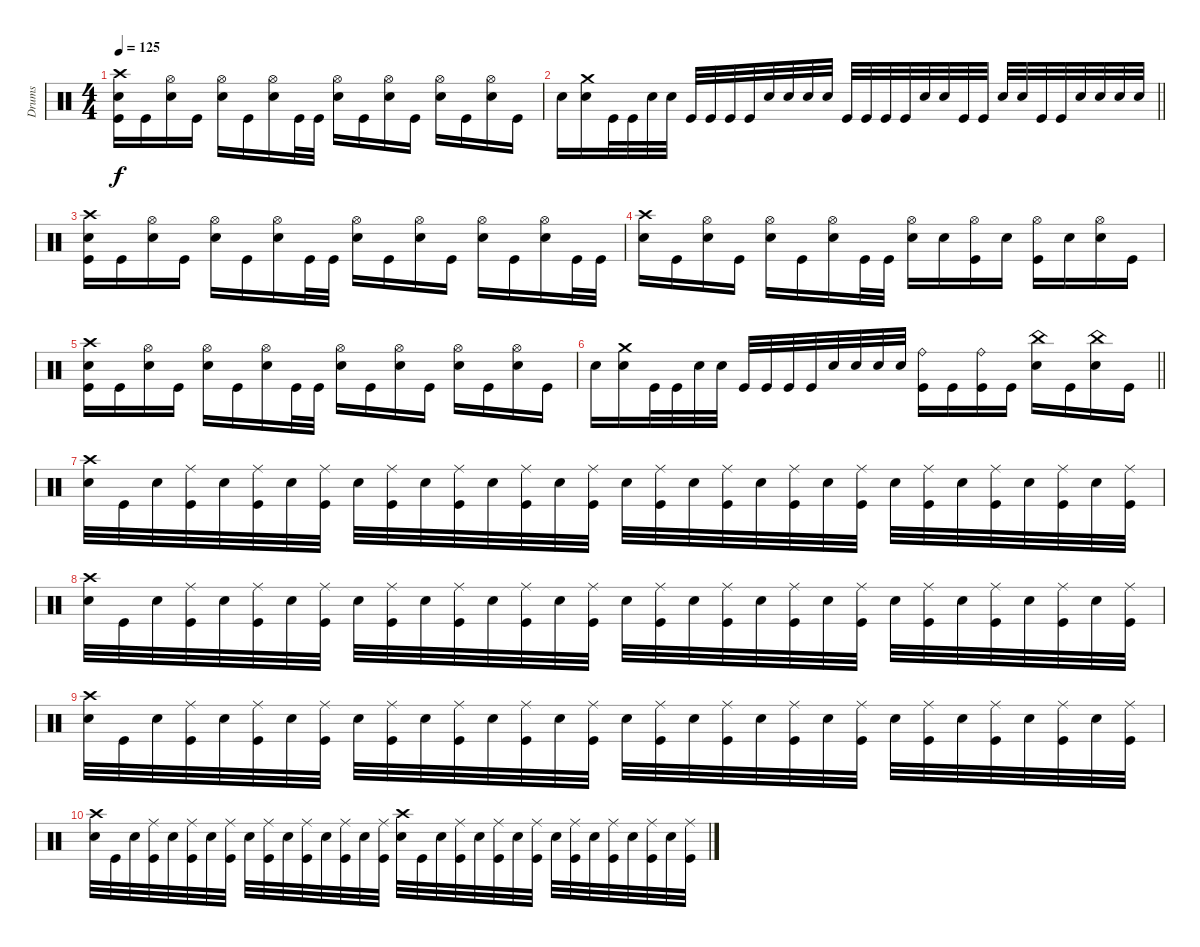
\track ("Drums" "Drums") {instrument percussion}
\staff
\articulation defaults
\ts (4 4)
\tempo 125
\clef neutral
\ks c
("Crash high (hit)" "Electric Snare (hit)" "Kick (hit)").16{dy f} "Kick (hit)".16 ("Hi-Hat (open)" "Electric Snare (hit)").16 "Kick (hit)".16 ("Hi-Hat (open)" "Electric Snare (hit)").16 "Kick (hit)".16 ("Hi-Hat (open)" "Electric Snare (hit)").16 "Kick (hit)".32 "Kick (hit)".32 ("Hi-Hat (open)" "Electric Snare (hit)").16 "Kick (hit)".16 ("Hi-Hat (open)" "Electric Snare (hit)").16 "Kick (hit)".16 ("Hi-Hat (open)" "Electric Snare (hit)").16 "Kick (hit)".16 ("Hi-Hat (open)" "Electric Snare (hit)").16 "Kick (hit)".16 |
\barLineRight lightlight "Electric Snare (hit)".16
("Crash medium (hit)" "Electric Snare (hit)").16 "Kick (hit)".32 "Kick (hit)".32 "Electric Snare (hit)".32 "Electric Snare (hit)".32 "Kick (hit)".32 "Kick (hit)".32 "Kick (hit)".32 "Kick (hit)".32 "Electric Snare (hit)".32 "Electric Snare (hit)".32 "Electric Snare (hit)".32 "Electric Snare (hit)".32 "Kick (hit)".32 "Kick (hit)".32 "Kick (hit)".32 "Kick (hit)".32 "Electric Snare (hit)".32 "Electric Snare (hit)".32 "Kick (hit)".32 "Kick (hit)".32 "Electric Snare (hit)".32 "Electric Snare (hit)".32 "Kick (hit)".32 "Kick (hit)".32 "Electric Snare (hit)".32 "Electric Snare (hit)".32 "Electric Snare (hit)".32 "Electric Snare (hit)".32 |
("Crash high (hit)" "Electric Snare (hit)" "Kick (hit)").16 "Kick (hit)".16 ("Hi-Hat (open)" "Electric Snare (hit)").16 "Kick (hit)".16 ("Hi-Hat (open)" "Electric Snare (hit)").16 "Kick (hit)".16 ("Hi-Hat (open)" "Electric Snare (hit)").16 "Kick (hit)".32 "Kick (hit)".32 ("Hi-Hat (open)" "Electric Snare (hit)").16 "Kick (hit)".16 ("Hi-Hat (open)" "Electric Snare (hit)").16 "Kick (hit)".16 ("Hi-Hat (open)" "Electric Snare (hit)").16 "Kick (hit)".16 ("Hi-Hat (open)" "Electric Snare (hit)").16 "Kick (hit)".32 "Kick (hit)".32 |
("Crash high (hit)" "Electric Snare (hit)").16 "Kick (hit)".16 ("Hi-Hat (open)" "Electric Snare (hit)").16 "Kick (hit)".16 ("Hi-Hat (open)" "Electric Snare (hit)").16 "Kick (hit)".16 ("Hi-Hat (open)" "Electric Snare (hit)").16 "Kick (hit)".32 "Kick (hit)".32 ("Hi-Hat (open)" "Electric Snare (hit)").16 "Electric Snare (hit)".16 ("Hi-Hat (open)" "Kick (hit)").16 "Electric Snare (hit)".16 ("Hi-Hat (open)" "Kick (hit)").16 "Electric Snare (hit)".16 ("Hi-Hat (open)" "Electric Snare (hit)").16 "Kick (hit)".16 |
("Crash high (hit)" "Electric Snare (hit)" "Kick (hit)").16 "Kick (hit)".16 ("Hi-Hat (open)" "Electric Snare (hit)").16 "Kick (hit)".16 ("Hi-Hat (open)" "Electric Snare (hit)").16 "Kick (hit)".16 ("Hi-Hat (open)" "Electric Snare (hit)").16 "Kick (hit)".32 "Kick (hit)".32 ("Hi-Hat (open)" "Electric Snare (hit)").16 "Kick (hit)".16 ("Hi-Hat (open)" "Electric Snare (hit)").16 "Kick (hit)".16 ("Hi-Hat (open)" "Electric Snare (hit)").16 "Kick (hit)".16 ("Hi-Hat (open)" "Electric Snare (hit)").16 "Kick (hit)".16 |
\barLineRight lightlight "Electric Snare (hit)".16
("Crash medium (hit)" "Electric Snare (hit)").16 "Kick (hit)".32 "Kick (hit)".32 "Electric Snare (hit)".32 "Electric Snare (hit)".32 "Kick (hit)".32 "Kick (hit)".32 "Kick (hit)".32 "Kick (hit)".32 "Electric Snare (hit)".32 "Electric Snare (hit)".32 "Electric Snare (hit)".32 "Electric Snare (hit)".32 ("Ride (bell)" "Kick (hit)").16 "Kick (hit)".16 ("Ride (bell)" "Kick (hit)").16 "Kick (hit)".16 ("China (hit)" "Electric Snare (hit)").16 "Kick (hit)".16 ("China (hit)" "Electric Snare (hit)").16 "Kick (hit)".16 |
("Crash high (hit)" "Electric Snare (hit)").32 "Kick (hit)".32 "Electric Snare (hit)".32 ("Ride (middle)" "Kick (hit)").32 "Electric Snare (hit)".32 ("Ride (middle)" "Kick (hit)").32 "Electric Snare (hit)".32 ("Ride (middle)" "Kick (hit)").32 "Electric Snare (hit)".32 ("Ride (middle)" "Kick (hit)").32 "Electric Snare (hit)".32 ("Ride (middle)" "Kick (hit)").32 "Electric Snare (hit)".32 ("Ride (middle)" "Kick (hit)").32 "Electric Snare (hit)".32 ("Ride (middle)" "Kick (hit)").32 "Electric Snare (hit)".32 ("Ride (middle)" "Kick (hit)").32 "Electric Snare (hit)".32 ("Ride (middle)" "Kick (hit)").32 "Electric Snare (hit)".32 ("Ride (middle)" "Kick (hit)").32 "Electric Snare (hit)".32 ("Ride (middle)" "Kick (hit)").32 "Electric Snare (hit)".32 ("Ride (middle)" "Kick (hit)").32 "Electric Snare (hit)".32 ("Ride (middle)" "Kick (hit)").32 "Electric Snare (hit)".32 ("Ride (middle)" "Kick (hit)").32 "Electric Snare (hit)".32 ("Ride (middle)" "Kick (hit)").32 |
("Crash high (hit)" "Electric Snare (hit)").32 "Kick (hit)".32 "Electric Snare (hit)".32 ("Ride (middle)" "Kick (hit)").32 "Electric Snare (hit)".32 ("Ride (middle)" "Kick (hit)").32 "Electric Snare (hit)".32 ("Ride (middle)" "Kick (hit)").32 "Electric Snare (hit)".32 ("Ride (middle)" "Kick (hit)").32 "Electric Snare (hit)".32 ("Ride (middle)" "Kick (hit)").32 "Electric Snare (hit)".32 ("Ride (middle)" "Kick (hit)").32 "Electric Snare (hit)".32 ("Ride (middle)" "Kick (hit)").32 "Electric Snare (hit)".32 ("Ride (middle)" "Kick (hit)").32 "Electric Snare (hit)".32 ("Ride (middle)" "Kick (hit)").32 "Electric Snare (hit)".32 ("Ride (middle)" "Kick (hit)").32 "Electric Snare (hit)".32 ("Ride (middle)" "Kick (hit)").32 "Electric Snare (hit)".32 ("Ride (middle)" "Kick (hit)").32 "Electric Snare (hit)".32 ("Ride (middle)" "Kick (hit)").32 "Electric Snare (hit)".32 ("Ride (middle)" "Kick (hit)").32 "Electric Snare (hit)".32 ("Ride (middle)" "Kick (hit)").32 |
("Crash high (hit)" "Electric Snare (hit)").32 "Kick (hit)".32 "Electric Snare (hit)".32 ("Ride (middle)" "Kick (hit)").32 "Electric Snare (hit)".32 ("Ride (middle)" "Kick (hit)").32 "Electric Snare (hit)".32 ("Ride (middle)" "Kick (hit)").32 "Electric Snare (hit)".32 ("Ride (middle)" "Kick (hit)").32 "Electric Snare (hit)".32 ("Ride (middle)" "Kick (hit)").32 "Electric Snare (hit)".32 ("Ride (middle)" "Kick (hit)").32 "Electric Snare (hit)".32 ("Ride (middle)" "Kick (hit)").32 "Electric Snare (hit)".32 ("Ride (middle)" "Kick (hit)").32 "Electric Snare (hit)".32 ("Ride (middle)" "Kick (hit)").32 "Electric Snare (hit)".32 ("Ride (middle)" "Kick (hit)").32 "Electric Snare (hit)".32 ("Ride (middle)" "Kick (hit)").32 "Electric Snare (hit)".32 ("Ride (middle)" "Kick (hit)").32 "Electric Snare (hit)".32 ("Ride (middle)" "Kick (hit)").32 "Electric Snare (hit)".32 ("Ride (middle)" "Kick (hit)").32 "Electric Snare (hit)".32 ("Ride (middle)" "Kick (hit)").32 |
("Crash high (hit)" "Electric Snare (hit)").32 "Kick (hit)".32 "Electric Snare (hit)".32 ("Ride (middle)" "Kick (hit)").32 "Electric Snare (hit)".32 ("Ride (middle)" "Kick (hit)").32 "Electric Snare (hit)".32 ("Ride (middle)" "Kick (hit)").32 "Electric Snare (hit)".32 ("Ride (middle)" "Kick (hit)").32 "Electric Snare (hit)".32 ("Ride (middle)" "Kick (hit)").32 "Electric Snare (hit)".32 ("Ride (middle)" "Kick (hit)").32 "Electric Snare (hit)".32 ("Ride (middle)" "Kick (hit)").32 ("Crash high (hit)" "Electric Snare (hit)").32 "Kick (hit)".32 "Electric Snare (hit)".32 ("Ride (middle)" "Kick (hit)").32 "Electric Snare (hit)".32 ("Ride (middle)" "Kick (hit)").32 "Electric Snare (hit)".32 ("Ride (middle)" "Kick (hit)").32 "Electric Snare (hit)".32 ("Ride (middle)" "Kick (hit)").32 "Electric Snare (hit)".32 ("Ride (middle)" "Kick (hit)").32 "Electric Snare (hit)".32 ("Ride (middle)" "Kick (hit)").32 "Electric Snare (hit)".32 ("Ride (middle)" "Kick (hit)").32
